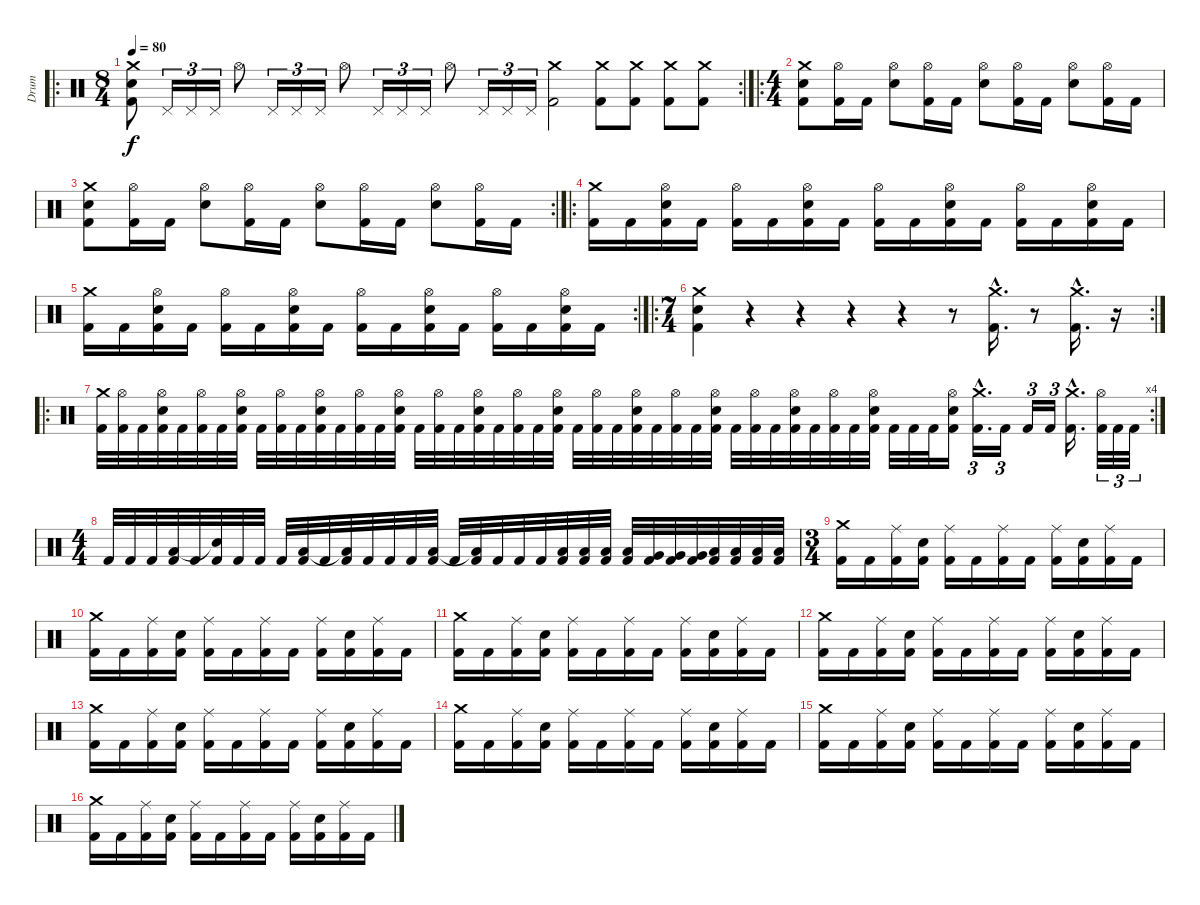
\track ("Drum" "Drum") {instrument percussion}
\staff {score}
\articulation defaults
\ro
\rc 2
\ts (8 4)
\tempo 80
\clef neutral
\ks c
("Kick (hit) 2" "Snare (hit) 2" "Crash medium (hit)").8{dy f} "Pedal Hi-Hat (hit)".16{tu (3 2)} "Pedal Hi-Hat (hit)".16{tu (3 2)} "Pedal Hi-Hat (hit)".16{tu (3 2)} "Hi-Hat (open)".8 "Pedal Hi-Hat (hit)".16{tu (3 2)} "Pedal Hi-Hat (hit)".16{tu (3 2)} "Pedal Hi-Hat (hit)".16{tu (3 2)} "Hi-Hat (open)".8 "Pedal Hi-Hat (hit)".16{tu (3 2)} "Pedal Hi-Hat (hit)".16{tu (3 2)} "Pedal Hi-Hat (hit)".16{tu (3 2)} "Hi-Hat (open)".8 "Pedal Hi-Hat (hit)".16{tu (3 2)} "Pedal Hi-Hat (hit)".16{tu (3 2)} "Pedal Hi-Hat (hit)".16{tu (3 2)} ("Kick (hit) 2" "Crash medium (hit)").2 ("Kick (hit) 2" "Crash medium (hit)").8 ("Kick (hit) 2" "Crash medium (hit)").8 ("Kick (hit) 2" "Crash medium (hit)").8 ("Kick (hit) 2" "Crash medium (hit)").8 |
\ro
\ts (4 4)
("Kick (hit) 2" "Snare (hit) 2" "Crash medium (hit)").8 ("Kick (hit) 2" "Hi-Hat (open)").16 "Kick (hit) 2".16 ("Snare (hit) 2" "Hi-Hat (open)").8 ("Kick (hit) 2" "Hi-Hat (open)").16 "Kick (hit) 2".16 ("Snare (hit) 2" "Hi-Hat (open)").8 ("Kick (hit) 2" "Hi-Hat (open)").16 "Kick (hit) 2".16 ("Snare (hit) 2" "Hi-Hat (open)").8 ("Kick (hit) 2" "Hi-Hat (open)").16 "Kick (hit) 2".16 |
\rc 2
("Kick (hit) 2" "Snare (hit) 2" "Crash medium (hit)").8 ("Kick (hit) 2" "Hi-Hat (open)").16 "Kick (hit) 2".16 ("Snare (hit) 2" "Hi-Hat (open)").8 ("Kick (hit) 2" "Hi-Hat (open)").16 "Kick (hit) 2".16 ("Snare (hit) 2" "Hi-Hat (open)").8 ("Kick (hit) 2" "Hi-Hat (open)").16 "Kick (hit) 2".16 ("Snare (hit) 2" "Hi-Hat (open)").8 ("Kick (hit) 2" "Hi-Hat (open)").16 "Kick (hit) 2".16 |
\ro
("Kick (hit) 2" "Crash medium (hit)").16 "Kick (hit) 2".16 ("Kick (hit) 2" "Snare (hit) 2" "Hi-Hat (open)").16 "Kick (hit) 2".16 ("Kick (hit) 2" "Hi-Hat (open)").16 "Kick (hit) 2".16 ("Kick (hit) 2" "Snare (hit) 2" "Hi-Hat (open)").16 "Kick (hit) 2".16 ("Kick (hit) 2" "Hi-Hat (open)").16 "Kick (hit) 2".16 ("Kick (hit) 2" "Snare (hit) 2" "Hi-Hat (open)").16 "Kick (hit) 2".16 ("Kick (hit) 2" "Hi-Hat (open)").16 "Kick (hit) 2".16 ("Kick (hit) 2" "Snare (hit) 2" "Hi-Hat (open)").16 "Kick (hit) 2".16 |
\rc 2
("Kick (hit) 2" "Crash medium (hit)").16 "Kick (hit) 2".16 ("Kick (hit) 2" "Snare (hit) 2" "Hi-Hat (open)").16 "Kick (hit) 2".16 ("Kick (hit) 2" "Hi-Hat (open)").16 "Kick (hit) 2".16 ("Kick (hit) 2" "Snare (hit) 2" "Hi-Hat (open)").16 "Kick (hit) 2".16 ("Kick (hit) 2" "Hi-Hat (open)").16 "Kick (hit) 2".16 ("Kick (hit) 2" "Snare (hit) 2" "Hi-Hat (open)").16 "Kick (hit) 2".16 ("Kick (hit) 2" "Hi-Hat (open)").16 "Kick (hit) 2".16 ("Kick (hit) 2" "Snare (hit) 2" "Hi-Hat (open)").16 "Kick (hit) 2".16 |
\ro
\rc 2
\ts (7 4)
("Kick (hit) 2" "Snare (hit) 2" "Crash medium (hit)").4 r.4 r.4 r.4 r.4 r.8 ("Kick (hit) 2"{hac} "Crash medium (hit)"{hac}).16{d} r.8 ("Kick (hit) 2"{hac} "Crash medium (hit)"{hac}).16{d} r.16 |
\ro
\rc 4
("Kick (hit) 2" "Crash medium (hit)").32 ("Kick (hit) 2" "Hi-Hat (open)").32 "Kick (hit) 2".32 ("Kick (hit) 2" "Snare (hit) 2" "Hi-Hat (open)").32 "Kick (hit) 2".32 ("Kick (hit) 2" "Hi-Hat (open)").32 "Kick (hit) 2".32 ("Kick (hit) 2" "Snare (hit) 2" "Hi-Hat (open)").32 "Kick (hit) 2".32 ("Kick (hit) 2" "Hi-Hat (open)").32 "Kick (hit) 2".32 ("Kick (hit) 2" "Snare (hit) 2" "Hi-Hat (open)").32 "Kick (hit) 2".32 ("Kick (hit) 2" "Hi-Hat (open)").32 "Kick (hit) 2".32 ("Kick (hit) 2" "Snare (hit) 2" "Hi-Hat (open)").32 "Kick (hit) 2".32 ("Kick (hit) 2" "Hi-Hat (open)").32 "Kick (hit) 2".32 ("Kick (hit) 2" "Snare (hit) 2" "Hi-Hat (open)").32 "Kick (hit) 2".32 ("Kick (hit) 2" "Hi-Hat (open)").32 "Kick (hit) 2".32 ("Kick (hit) 2" "Snare (hit) 2" "Hi-Hat (open)").32 "Kick (hit) 2".32 ("Kick (hit) 2" "Hi-Hat (open)").32 "Kick (hit) 2".32 ("Kick (hit) 2" "Snare (hit) 2" "Hi-Hat (open)").32 "Kick (hit) 2".32 ("Kick (hit) 2" "Hi-Hat (open)").32 "Kick (hit) 2".32 ("Kick (hit) 2" "Snare (hit) 2" "Hi-Hat (open)").32 "Kick (hit) 2".32 ("Kick (hit) 2" "Hi-Hat (open)").32 "Kick (hit) 2".32 ("Kick (hit) 2" "Snare (hit) 2" "Hi-Hat (open)").32 "Kick (hit) 2".32 ("Kick (hit) 2" "Hi-Hat (open)").32 "Kick (hit) 2".32 ("Kick (hit) 2" "Snare (hit) 2" "Hi-Hat (open)").32 "Kick (hit) 2".32 "Kick (hit) 2".32 "Kick (hit) 2".32 ("Kick (hit) 2" "Snare (hit) 2" "Hi-Hat (open)").16 ("Kick (hit) 2"{hac} "Crash medium (hit)"{hac}).16{d tu (3 2)} "Kick (hit) 2".16{tu (3 2)} "Kick (hit) 2".16{tu (3 2)} "Kick (hit) 2".16{tu (3 2)} ("Kick (hit) 2"{hac} "Crash medium (hit)"{hac}).16{d} ("Kick (hit) 2" "Hi-Hat (open)").32{tu (3 2)} "Kick (hit) 2".32{tu (3 2)} "Kick (hit) 2".32{tu (3 2)} |
\ts (4 4)
"Kick (hit) 2".32 "Kick (hit) 2".32 "Kick (hit) 2".32 ("Kick (hit) 2" "Low Floor Tom (hit)").32 "Kick (hit) 2".32 ("Kick (hit) 2" "Snare (hit)"{t}).32 "Kick (hit) 2".32 "Kick (hit) 2".32 "Kick (hit) 2".32 ("Kick (hit) 2" "Low Floor Tom (hit)").32 "Kick (hit) 2".32 ("Kick (hit) 2" "Low Floor Tom (hit)"{t}).32 "Kick (hit) 2".32 "Kick (hit) 2".32 "Kick (hit) 2".32 ("Kick (hit) 2" "Low Floor Tom (hit)").32 "Kick (hit) 2".32 ("Kick (hit) 2" "Low Floor Tom (hit)"{t}).32 "Kick (hit) 2".32 "Kick (hit) 2".32 "Kick (hit) 2".32 ("Kick (hit) 2" "Low Floor Tom (hit)").32 ("Kick (hit) 2" "Low Tom (hit)").32 ("Kick (hit) 2" "Low Tom (hit)").32 ("Kick (hit) 2" "Low Tom (hit)").32 ("Kick (hit) 2" "Very Low Tom (hit)").32 ("Kick (hit) 2" "Very Low Tom (hit)").32 ("Kick (hit) 2" "Very Low Tom (hit)").32 ("Kick (hit) 2" "Low Floor Tom (hit)").32 ("Kick (hit) 2" "Low Floor Tom (hit)").32 ("Kick (hit) 2" "Low Floor Tom (hit)").32 ("Kick (hit) 2" "Low Floor Tom (hit)").32 |
\ts (3 4)
("Kick (hit) 2" "Crash medium (hit)").16 "Kick (hit) 2".16 ("Kick (hit) 2" "Ride (middle)").16 ("Kick (hit) 2" "Snare (hit) 2").16 ("Kick (hit) 2" "Ride (middle)").16 "Kick (hit) 2".16 ("Kick (hit) 2" "Ride (middle)").16 "Kick (hit) 2".16 ("Kick (hit) 2" "Ride (middle)").16 ("Kick (hit) 2" "Snare (hit) 2").16 ("Kick (hit) 2" "Ride (middle)").16 "Kick (hit) 2".16 |
("Kick (hit) 2" "Crash medium (hit)").16 "Kick (hit) 2".16 ("Kick (hit) 2" "Ride (middle)").16 ("Kick (hit) 2" "Snare (hit) 2").16 ("Kick (hit) 2" "Ride (middle)").16 "Kick (hit) 2".16 ("Kick (hit) 2" "Ride (middle)").16 "Kick (hit) 2".16 ("Kick (hit) 2" "Ride (middle)").16 ("Kick (hit) 2" "Snare (hit) 2").16 ("Kick (hit) 2" "Ride (middle)").16 "Kick (hit) 2".16 |
("Kick (hit) 2" "Crash medium (hit)").16 "Kick (hit) 2".16 ("Kick (hit) 2" "Ride (middle)").16 ("Kick (hit) 2" "Snare (hit) 2").16 ("Kick (hit) 2" "Ride (middle)").16 "Kick (hit) 2".16 ("Kick (hit) 2" "Ride (middle)").16 "Kick (hit) 2".16 ("Kick (hit) 2" "Ride (middle)").16 ("Kick (hit) 2" "Snare (hit) 2").16 ("Kick (hit) 2" "Ride (middle)").16 "Kick (hit) 2".16 |
("Kick (hit) 2" "Crash medium (hit)").16 "Kick (hit) 2".16 ("Kick (hit) 2" "Ride (middle)").16 ("Kick (hit) 2" "Snare (hit) 2").16 ("Kick (hit) 2" "Ride (middle)").16 "Kick (hit) 2".16 ("Kick (hit) 2" "Ride (middle)").16 "Kick (hit) 2".16 ("Kick (hit) 2" "Ride (middle)").16 ("Kick (hit) 2" "Snare (hit) 2").16 ("Kick (hit) 2" "Ride (middle)").16 "Kick (hit) 2".16 |
("Kick (hit) 2" "Crash medium (hit)").16 "Kick (hit) 2".16 ("Kick (hit) 2" "Ride (middle)").16 ("Kick (hit) 2" "Snare (hit) 2").16 ("Kick (hit) 2" "Ride (middle)").16 "Kick (hit) 2".16 ("Kick (hit) 2" "Ride (middle)").16 "Kick (hit) 2".16 ("Kick (hit) 2" "Ride (middle)").16 ("Kick (hit) 2" "Snare (hit) 2").16 ("Kick (hit) 2" "Ride (middle)").16 "Kick (hit) 2".16 |
("Kick (hit) 2" "Crash medium (hit)").16 "Kick (hit) 2".16 ("Kick (hit) 2" "Ride (middle)").16 ("Kick (hit) 2" "Snare (hit) 2").16 ("Kick (hit) 2" "Ride (middle)").16 "Kick (hit) 2".16 ("Kick (hit) 2" "Ride (middle)").16 "Kick (hit) 2".16 ("Kick (hit) 2" "Ride (middle)").16 ("Kick (hit) 2" "Snare (hit) 2").16 ("Kick (hit) 2" "Ride (middle)").16 "Kick (hit) 2".16 |
("Kick (hit) 2" "Crash medium (hit)").16 "Kick (hit) 2".16 ("Kick (hit) 2" "Ride (middle)").16 ("Kick (hit) 2" "Snare (hit) 2").16 ("Kick (hit) 2" "Ride (middle)").16 "Kick (hit) 2".16 ("Kick (hit) 2" "Ride (middle)").16 "Kick (hit) 2".16 ("Kick (hit) 2" "Ride (middle)").16 ("Kick (hit) 2" "Snare (hit) 2").16 ("Kick (hit) 2" "Ride (middle)").16 "Kick (hit) 2".16 |
("Kick (hit) 2" "Crash medium (hit)").16 "Kick (hit) 2".16 ("Kick (hit) 2" "Ride (middle)").16 ("Kick (hit) 2" "Snare (hit) 2").16 ("Kick (hit) 2" "Ride (middle)").16 "Kick (hit) 2".16 ("Kick (hit) 2" "Ride (middle)").16 "Kick (hit) 2".16 ("Kick (hit) 2" "Ride (middle)").16 ("Kick (hit) 2" "Snare (hit) 2").16 ("Kick (hit) 2" "Ride (middle)").16 "Kick (hit) 2".16
